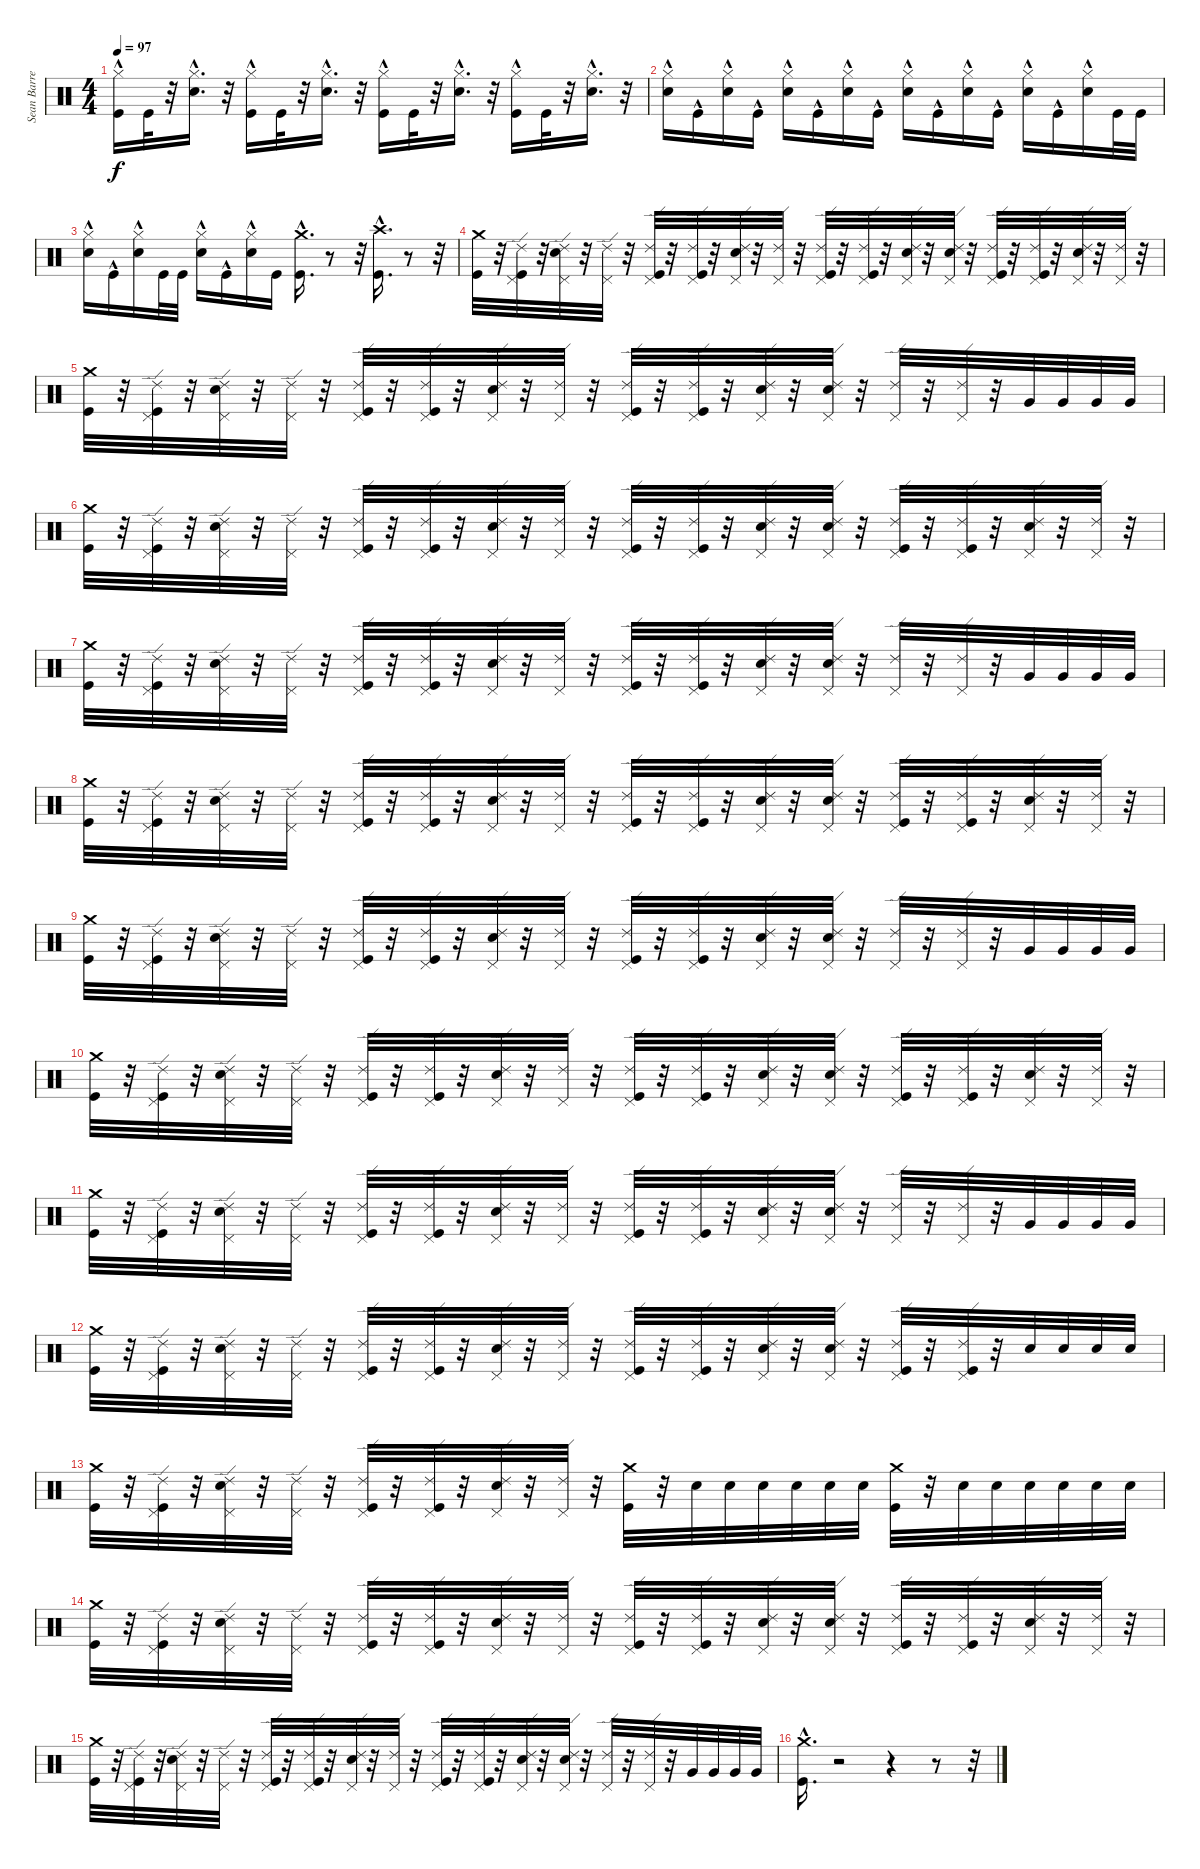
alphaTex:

\track ("Sean Barrett" "Sean Barre") {instrument percussion}
\staff {score}
\articulation defaults
\ts (4 4)
\tempo 97
\clef neutral
\ks c
("Kick (hit)" "Hi-Hat (closed)"{hac}).16{dy f} "Kick (hit)".32 r.32 ("Snare (hit) 2"{hac} "Hi-Hat (closed)"{hac}).16{d} r.32 ("Kick (hit)" "Hi-Hat (closed)"{hac}).16 "Kick (hit)".32 r.32 ("Snare (hit) 2"{hac} "Hi-Hat (closed)"{hac}).16{d} r.32 ("Kick (hit)" "Hi-Hat (closed)"{hac}).16 "Kick (hit)".32 r.32 ("Snare (hit) 2"{hac} "Hi-Hat (closed)"{hac}).16{d} r.32 ("Kick (hit)" "Hi-Hat (closed)"{hac}).16 "Kick (hit)".32 r.32 ("Snare (hit) 2"{hac} "Hi-Hat (closed)"{hac}).16{d} r.32 |
("Snare (hit) 2"{hac} "Hi-Hat (closed)"{hac}).16 "Kick (hit)"{hac}.16 ("Snare (hit) 2"{hac} "Hi-Hat (closed)"{hac}).16 "Kick (hit)"{hac}.16 ("Snare (hit) 2"{hac} "Hi-Hat (closed)"{hac}).16 "Kick (hit)"{hac}.16 ("Snare (hit) 2"{hac} "Hi-Hat (closed)"{hac}).16 "Kick (hit)"{hac}.16 ("Snare (hit) 2"{hac} "Hi-Hat (closed)"{hac}).16 "Kick (hit)"{hac}.16 ("Snare (hit) 2"{hac} "Hi-Hat (closed)"{hac}).16 "Kick (hit)"{hac}.16 ("Hi-Hat (closed)"{hac} "Snare (hit) 2"{hac}).16 "Kick (hit)"{hac}.16 ("Hi-Hat (closed)"{hac} "Snare (hit) 2"{hac}).16 "Kick (hit)".32 "Kick (hit)".32 |
("Snare (hit) 2"{hac} "Hi-Hat (closed)"{hac}).16 "Kick (hit)"{hac}.16 ("Snare (hit) 2"{hac} "Hi-Hat (closed)"{hac}).16 "Kick (hit)".32 "Kick (hit)".32 ("Snare (hit) 2"{hac} "Hi-Hat (closed)"{hac}).16 "Kick (hit)"{hac}.16 ("Snare (hit) 2"{hac} "Hi-Hat (closed)"{hac}).16 "Kick (hit)".16 ("Kick (hit)"{hac} "Crash medium (hit)"{hac}).16{d} r.8 r.32 ("Crash high (hit)"{hac} "Kick (hit)"{hac}).16{d} r.8 r.32 |
("Crash medium (hit)" "Kick (hit)").32 r.32 ("Pedal Hi-Hat (hit)" "Ride (edge) 2" "Kick (hit)").32 r.32 ("Pedal Hi-Hat (hit)" "Ride (edge) 2" "Snare (hit) 2").32 r.32 ("Pedal Hi-Hat (hit)" "Ride (edge) 2").32 r.32 ("Kick (hit)" "Pedal Hi-Hat (hit)" "Ride (edge) 2").32 r.32 ("Kick (hit)" "Pedal Hi-Hat (hit)" "Ride (edge) 2").32 r.32 ("Snare (hit) 2" "Pedal Hi-Hat (hit)" "Ride (edge) 2").32 r.32 ("Pedal Hi-Hat (hit)" "Ride (edge) 2").32 r.32 ("Kick (hit)" "Pedal Hi-Hat (hit)" "Ride (edge) 2").32 r.32 ("Kick (hit)" "Pedal Hi-Hat (hit)" "Ride (edge) 2").32 r.32 ("Snare (hit) 2" "Pedal Hi-Hat (hit)" "Ride (edge) 2").32 r.32 ("Snare (hit) 2" "Pedal Hi-Hat (hit)" "Ride (edge) 2").32 r.32 ("Kick (hit)" "Pedal Hi-Hat (hit)" "Ride (edge) 2").32 r.32 ("Kick (hit)" "Pedal Hi-Hat (hit)" "Ride (edge) 2").32 r.32 ("Snare (hit) 2" "Pedal Hi-Hat (hit)" "Ride (edge) 2").32 r.32 ("Pedal Hi-Hat (hit)" "Ride (edge) 2").32 r.32 |
("Crash medium (hit)" "Kick (hit)").32 r.32 ("Pedal Hi-Hat (hit)" "Ride (edge) 2" "Kick (hit)").32 r.32 ("Pedal Hi-Hat (hit)" "Ride (edge) 2" "Snare (hit) 2").32 r.32 ("Pedal Hi-Hat (hit)" "Ride (edge) 2").32 r.32 ("Kick (hit)" "Pedal Hi-Hat (hit)" "Ride (edge) 2").32 r.32 ("Kick (hit)" "Pedal Hi-Hat (hit)" "Ride (edge) 2").32 r.32 ("Snare (hit) 2" "Pedal Hi-Hat (hit)" "Ride (edge) 2").32 r.32 ("Pedal Hi-Hat (hit)" "Ride (edge) 2").32 r.32 ("Kick (hit)" "Pedal Hi-Hat (hit)" "Ride (edge) 2").32 r.32 ("Kick (hit)" "Pedal Hi-Hat (hit)" "Ride (edge) 2").32 r.32 ("Snare (hit) 2" "Pedal Hi-Hat (hit)" "Ride (edge) 2").32 r.32 ("Snare (hit) 2" "Pedal Hi-Hat (hit)" "Ride (edge) 2").32 r.32 ("Pedal Hi-Hat (hit)" "Ride (edge) 2").32 r.32 ("Pedal Hi-Hat (hit)" "Ride (edge) 2").32 r.32 "Very Low Tom (hit)".32 "Very Low Tom (hit)".32 "Very Low Tom (hit)".32 "Very Low Tom (hit)".32 |
("Crash medium (hit)" "Kick (hit)").32 r.32 ("Pedal Hi-Hat (hit)" "Ride (edge) 2" "Kick (hit)").32 r.32 ("Pedal Hi-Hat (hit)" "Ride (edge) 2" "Snare (hit) 2").32 r.32 ("Pedal Hi-Hat (hit)" "Ride (edge) 2").32 r.32 ("Kick (hit)" "Pedal Hi-Hat (hit)" "Ride (edge) 2").32 r.32 ("Kick (hit)" "Pedal Hi-Hat (hit)" "Ride (edge) 2").32 r.32 ("Snare (hit) 2" "Pedal Hi-Hat (hit)" "Ride (edge) 2").32 r.32 ("Pedal Hi-Hat (hit)" "Ride (edge) 2").32 r.32 ("Kick (hit)" "Pedal Hi-Hat (hit)" "Ride (edge) 2").32 r.32 ("Kick (hit)" "Pedal Hi-Hat (hit)" "Ride (edge) 2").32 r.32 ("Snare (hit) 2" "Pedal Hi-Hat (hit)" "Ride (edge) 2").32 r.32 ("Snare (hit) 2" "Pedal Hi-Hat (hit)" "Ride (edge) 2").32 r.32 ("Kick (hit)" "Pedal Hi-Hat (hit)" "Ride (edge) 2").32 r.32 ("Kick (hit)" "Pedal Hi-Hat (hit)" "Ride (edge) 2").32 r.32 ("Snare (hit) 2" "Pedal Hi-Hat (hit)" "Ride (edge) 2").32 r.32 ("Pedal Hi-Hat (hit)" "Ride (edge) 2").32 r.32 |
("Crash medium (hit)" "Kick (hit)").32 r.32 ("Pedal Hi-Hat (hit)" "Ride (edge) 2" "Kick (hit)").32 r.32 ("Pedal Hi-Hat (hit)" "Ride (edge) 2" "Snare (hit) 2").32 r.32 ("Pedal Hi-Hat (hit)" "Ride (edge) 2").32 r.32 ("Kick (hit)" "Pedal Hi-Hat (hit)" "Ride (edge) 2").32 r.32 ("Kick (hit)" "Pedal Hi-Hat (hit)" "Ride (edge) 2").32 r.32 ("Snare (hit) 2" "Pedal Hi-Hat (hit)" "Ride (edge) 2").32 r.32 ("Pedal Hi-Hat (hit)" "Ride (edge) 2").32 r.32 ("Kick (hit)" "Pedal Hi-Hat (hit)" "Ride (edge) 2").32 r.32 ("Kick (hit)" "Pedal Hi-Hat (hit)" "Ride (edge) 2").32 r.32 ("Snare (hit) 2" "Pedal Hi-Hat (hit)" "Ride (edge) 2").32 r.32 ("Snare (hit) 2" "Pedal Hi-Hat (hit)" "Ride (edge) 2").32 r.32 ("Pedal Hi-Hat (hit)" "Ride (edge) 2").32 r.32 ("Pedal Hi-Hat (hit)" "Ride (edge) 2").32 r.32 "Very Low Tom (hit)".32 "Very Low Tom (hit)".32 "Very Low Tom (hit)".32 "Very Low Tom (hit)".32 |
("Crash medium (hit)" "Kick (hit)").32 r.32 ("Pedal Hi-Hat (hit)" "Ride (edge) 2" "Kick (hit)").32 r.32 ("Pedal Hi-Hat (hit)" "Ride (edge) 2" "Snare (hit) 2").32 r.32 ("Pedal Hi-Hat (hit)" "Ride (edge) 2").32 r.32 ("Kick (hit)" "Pedal Hi-Hat (hit)" "Ride (edge) 2").32 r.32 ("Kick (hit)" "Pedal Hi-Hat (hit)" "Ride (edge) 2").32 r.32 ("Snare (hit) 2" "Pedal Hi-Hat (hit)" "Ride (edge) 2").32 r.32 ("Pedal Hi-Hat (hit)" "Ride (edge) 2").32 r.32 ("Kick (hit)" "Pedal Hi-Hat (hit)" "Ride (edge) 2").32 r.32 ("Kick (hit)" "Pedal Hi-Hat (hit)" "Ride (edge) 2").32 r.32 ("Snare (hit) 2" "Pedal Hi-Hat (hit)" "Ride (edge) 2").32 r.32 ("Snare (hit) 2" "Pedal Hi-Hat (hit)" "Ride (edge) 2").32 r.32 ("Kick (hit)" "Pedal Hi-Hat (hit)" "Ride (edge) 2").32 r.32 ("Kick (hit)" "Pedal Hi-Hat (hit)" "Ride (edge) 2").32 r.32 ("Snare (hit) 2" "Pedal Hi-Hat (hit)" "Ride (edge) 2").32 r.32 ("Pedal Hi-Hat (hit)" "Ride (edge) 2").32 r.32 |
("Crash medium (hit)" "Kick (hit)").32 r.32 ("Pedal Hi-Hat (hit)" "Ride (edge) 2" "Kick (hit)").32 r.32 ("Pedal Hi-Hat (hit)" "Ride (edge) 2" "Snare (hit) 2").32 r.32 ("Pedal Hi-Hat (hit)" "Ride (edge) 2").32 r.32 ("Kick (hit)" "Pedal Hi-Hat (hit)" "Ride (edge) 2").32 r.32 ("Kick (hit)" "Pedal Hi-Hat (hit)" "Ride (edge) 2").32 r.32 ("Snare (hit) 2" "Pedal Hi-Hat (hit)" "Ride (edge) 2").32 r.32 ("Pedal Hi-Hat (hit)" "Ride (edge) 2").32 r.32 ("Kick (hit)" "Pedal Hi-Hat (hit)" "Ride (edge) 2").32 r.32 ("Kick (hit)" "Pedal Hi-Hat (hit)" "Ride (edge) 2").32 r.32 ("Snare (hit) 2" "Pedal Hi-Hat (hit)" "Ride (edge) 2").32 r.32 ("Snare (hit) 2" "Pedal Hi-Hat (hit)" "Ride (edge) 2").32 r.32 ("Pedal Hi-Hat (hit)" "Ride (edge) 2").32 r.32 ("Pedal Hi-Hat (hit)" "Ride (edge) 2").32 r.32 "Very Low Tom (hit)".32 "Very Low Tom (hit)".32 "Very Low Tom (hit)".32 "Very Low Tom (hit)".32 |
("Crash medium (hit)" "Kick (hit)").32 r.32 ("Pedal Hi-Hat (hit)" "Ride (edge) 2" "Kick (hit)").32 r.32 ("Pedal Hi-Hat (hit)" "Ride (edge) 2" "Snare (hit) 2").32 r.32 ("Pedal Hi-Hat (hit)" "Ride (edge) 2").32 r.32 ("Kick (hit)" "Pedal Hi-Hat (hit)" "Ride (edge) 2").32 r.32 ("Kick (hit)" "Pedal Hi-Hat (hit)" "Ride (edge) 2").32 r.32 ("Snare (hit) 2" "Pedal Hi-Hat (hit)" "Ride (edge) 2").32 r.32 ("Pedal Hi-Hat (hit)" "Ride (edge) 2").32 r.32 ("Kick (hit)" "Pedal Hi-Hat (hit)" "Ride (edge) 2").32 r.32 ("Kick (hit)" "Pedal Hi-Hat (hit)" "Ride (edge) 2").32 r.32 ("Snare (hit) 2" "Pedal Hi-Hat (hit)" "Ride (edge) 2").32 r.32 ("Snare (hit) 2" "Pedal Hi-Hat (hit)" "Ride (edge) 2").32 r.32 ("Kick (hit)" "Pedal Hi-Hat (hit)" "Ride (edge) 2").32 r.32 ("Kick (hit)" "Pedal Hi-Hat (hit)" "Ride (edge) 2").32 r.32 ("Snare (hit) 2" "Pedal Hi-Hat (hit)" "Ride (edge) 2").32 r.32 ("Pedal Hi-Hat (hit)" "Ride (edge) 2").32 r.32 |
("Crash medium (hit)" "Kick (hit)").32 r.32 ("Pedal Hi-Hat (hit)" "Ride (edge) 2" "Kick (hit)").32 r.32 ("Pedal Hi-Hat (hit)" "Ride (edge) 2" "Snare (hit) 2").32 r.32 ("Pedal Hi-Hat (hit)" "Ride (edge) 2").32 r.32 ("Kick (hit)" "Pedal Hi-Hat (hit)" "Ride (edge) 2").32 r.32 ("Kick (hit)" "Pedal Hi-Hat (hit)" "Ride (edge) 2").32 r.32 ("Snare (hit) 2" "Pedal Hi-Hat (hit)" "Ride (edge) 2").32 r.32 ("Pedal Hi-Hat (hit)" "Ride (edge) 2").32 r.32 ("Kick (hit)" "Pedal Hi-Hat (hit)" "Ride (edge) 2").32 r.32 ("Kick (hit)" "Pedal Hi-Hat (hit)" "Ride (edge) 2").32 r.32 ("Snare (hit) 2" "Pedal Hi-Hat (hit)" "Ride (edge) 2").32 r.32 ("Snare (hit) 2" "Pedal Hi-Hat (hit)" "Ride (edge) 2").32 r.32 ("Pedal Hi-Hat (hit)" "Ride (edge) 2").32 r.32 ("Pedal Hi-Hat (hit)" "Ride (edge) 2").32 r.32 "Very Low Tom (hit)".32 "Very Low Tom (hit)".32 "Very Low Tom (hit)".32 "Very Low Tom (hit)".32 |
("Crash medium (hit)" "Kick (hit)").32 r.32 ("Pedal Hi-Hat (hit)" "Ride (edge) 2" "Kick (hit)").32 r.32 ("Pedal Hi-Hat (hit)" "Ride (edge) 2" "Snare (hit) 2").32 r.32 ("Pedal Hi-Hat (hit)" "Ride (edge) 2").32 r.32 ("Kick (hit)" "Pedal Hi-Hat (hit)" "Ride (edge) 2").32 r.32 ("Kick (hit)" "Pedal Hi-Hat (hit)" "Ride (edge) 2").32 r.32 ("Snare (hit) 2" "Pedal Hi-Hat (hit)" "Ride (edge) 2").32 r.32 ("Pedal Hi-Hat (hit)" "Ride (edge) 2").32 r.32 ("Kick (hit)" "Pedal Hi-Hat (hit)" "Ride (edge) 2").32 r.32 ("Kick (hit)" "Pedal Hi-Hat (hit)" "Ride (edge) 2").32 r.32 ("Snare (hit) 2" "Pedal Hi-Hat (hit)" "Ride (edge) 2").32 r.32 ("Snare (hit) 2" "Pedal Hi-Hat (hit)" "Ride (edge) 2").32 r.32 ("Kick (hit)" "Pedal Hi-Hat (hit)" "Ride (edge) 2").32 r.32 ("Kick (hit)" "Pedal Hi-Hat (hit)" "Ride (edge) 2").32 r.32 "Snare (hit) 2".32 "Snare (hit) 2".32 "Snare (hit) 2".32 "Snare (hit) 2".32 |
("Crash medium (hit)" "Kick (hit)").32 r.32 ("Pedal Hi-Hat (hit)" "Ride (edge) 2" "Kick (hit)").32 r.32 ("Pedal Hi-Hat (hit)" "Ride (edge) 2" "Snare (hit) 2").32 r.32 ("Pedal Hi-Hat (hit)" "Ride (edge) 2").32 r.32 ("Kick (hit)" "Pedal Hi-Hat (hit)" "Ride (edge) 2").32 r.32 ("Kick (hit)" "Pedal Hi-Hat (hit)" "Ride (edge) 2").32 r.32 ("Snare (hit) 2" "Pedal Hi-Hat (hit)" "Ride (edge) 2").32 r.32 ("Pedal Hi-Hat (hit)" "Ride (edge) 2").32 r.32 ("Crash medium (hit)" "Kick (hit)").32 r.32 "Snare (hit) 2".32 "Snare (hit) 2".32 "Snare (hit) 2".32 "Snare (hit) 2".32 "Snare (hit) 2".32 "Snare (hit) 2".32 ("Crash medium (hit)" "Kick (hit)").32 r.32 "Snare (hit) 2".32 "Snare (hit) 2".32 "Snare (hit) 2".32 "Snare (hit) 2".32 "Snare (hit) 2".32 "Snare (hit) 2".32 |
("Crash medium (hit)" "Kick (hit)").32 r.32 ("Pedal Hi-Hat (hit)" "Ride (edge) 2" "Kick (hit)").32 r.32 ("Pedal Hi-Hat (hit)" "Ride (edge) 2" "Snare (hit) 2").32 r.32 ("Pedal Hi-Hat (hit)" "Ride (edge) 2").32 r.32 ("Kick (hit)" "Pedal Hi-Hat (hit)" "Ride (edge) 2").32 r.32 ("Kick (hit)" "Pedal Hi-Hat (hit)" "Ride (edge) 2").32 r.32 ("Snare (hit) 2" "Pedal Hi-Hat (hit)" "Ride (edge) 2").32 r.32 ("Pedal Hi-Hat (hit)" "Ride (edge) 2").32 r.32 ("Kick (hit)" "Pedal Hi-Hat (hit)" "Ride (edge) 2").32 r.32 ("Kick (hit)" "Pedal Hi-Hat (hit)" "Ride (edge) 2").32 r.32 ("Snare (hit) 2" "Pedal Hi-Hat (hit)" "Ride (edge) 2").32 r.32 ("Snare (hit) 2" "Pedal Hi-Hat (hit)" "Ride (edge) 2").32 r.32 ("Kick (hit)" "Pedal Hi-Hat (hit)" "Ride (edge) 2").32 r.32 ("Kick (hit)" "Pedal Hi-Hat (hit)" "Ride (edge) 2").32 r.32 ("Snare (hit) 2" "Pedal Hi-Hat (hit)" "Ride (edge) 2").32 r.32 ("Pedal Hi-Hat (hit)" "Ride (edge) 2").32 r.32 |
("Crash medium (hit)" "Kick (hit)").32 r.32 ("Pedal Hi-Hat (hit)" "Ride (edge) 2" "Kick (hit)").32 r.32 ("Pedal Hi-Hat (hit)" "Ride (edge) 2" "Snare (hit) 2").32 r.32 ("Pedal Hi-Hat (hit)" "Ride (edge) 2").32 r.32 ("Kick (hit)" "Pedal Hi-Hat (hit)" "Ride (edge) 2").32 r.32 ("Kick (hit)" "Pedal Hi-Hat (hit)" "Ride (edge) 2").32 r.32 ("Snare (hit) 2" "Pedal Hi-Hat (hit)" "Ride (edge) 2").32 r.32 ("Pedal Hi-Hat (hit)" "Ride (edge) 2").32 r.32 ("Kick (hit)" "Pedal Hi-Hat (hit)" "Ride (edge) 2").32 r.32 ("Kick (hit)" "Pedal Hi-Hat (hit)" "Ride (edge) 2").32 r.32 ("Snare (hit) 2" "Pedal Hi-Hat (hit)" "Ride (edge) 2").32 r.32 ("Snare (hit) 2" "Pedal Hi-Hat (hit)" "Ride (edge) 2").32 r.32 ("Pedal Hi-Hat (hit)" "Ride (edge) 2").32 r.32 ("Pedal Hi-Hat (hit)" "Ride (edge) 2").32 r.32 "Very Low Tom (hit)".32 "Very Low Tom (hit)".32 "Very Low Tom (hit)".32 "Very Low Tom (hit)".32 |
("Kick (hit)"{hac} "Crash medium (hit)"{hac}).16{d} r.2 r.4 r.8 r.32
